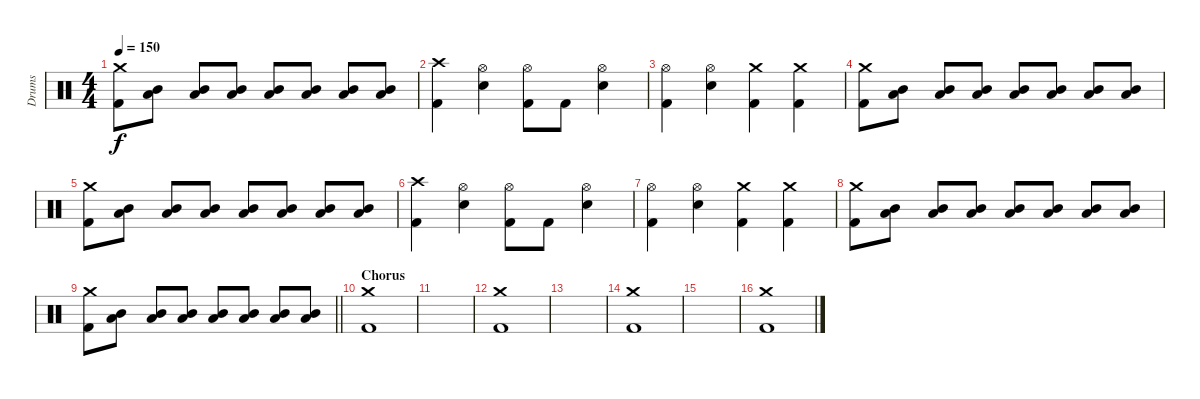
\track ("Drums" "Drums") {instrument percussion}
\staff {score}
\articulation defaults
\ts (4 4)
\tempo 150
\clef neutral
\ks c
("Crash medium (hit)" "Kick (hit) 2").8{dy f} ("Low Tom (hit)" "Mid Tom (hit)").8 ("Low Tom (hit)" "Mid Tom (hit)").8 ("Low Tom (hit)" "Mid Tom (hit)").8 ("Low Tom (hit)" "Mid Tom (hit)").8 ("Low Tom (hit)" "Mid Tom (hit)").8 ("Low Tom (hit)" "Mid Tom (hit)").8 ("Low Tom (hit)" "Mid Tom (hit)").8 |
("Crash high (hit)" "Kick (hit) 2").4 ("Hi-Hat (open)" "Electric Snare (hit)").4 ("Hi-Hat (open)" "Kick (hit) 2").8 "Kick (hit) 2".8 ("Hi-Hat (open)" "Electric Snare (hit)").4 |
("Hi-Hat (open)" "Kick (hit) 2").4 ("Electric Snare (hit)" "Hi-Hat (open)").4 ("Crash medium (hit)" "Kick (hit) 2").4 ("Crash medium (hit)" "Kick (hit) 2").4 |
("Crash medium (hit)" "Kick (hit) 2").8 ("Low Tom (hit)" "Mid Tom (hit)").8 ("Low Tom (hit)" "Mid Tom (hit)").8 ("Low Tom (hit)" "Mid Tom (hit)").8 ("Low Tom (hit)" "Mid Tom (hit)").8 ("Low Tom (hit)" "Mid Tom (hit)").8 ("Low Tom (hit)" "Mid Tom (hit)").8 ("Low Tom (hit)" "Mid Tom (hit)").8 |
("Crash medium (hit)" "Kick (hit) 2").8 ("Low Tom (hit)" "Mid Tom (hit)").8 ("Low Tom (hit)" "Mid Tom (hit)").8 ("Low Tom (hit)" "Mid Tom (hit)").8 ("Low Tom (hit)" "Mid Tom (hit)").8 ("Low Tom (hit)" "Mid Tom (hit)").8 ("Low Tom (hit)" "Mid Tom (hit)").8 ("Low Tom (hit)" "Mid Tom (hit)").8 |
("Crash high (hit)" "Kick (hit) 2").4 ("Hi-Hat (open)" "Electric Snare (hit)").4 ("Hi-Hat (open)" "Kick (hit) 2").8 "Kick (hit) 2".8 ("Hi-Hat (open)" "Electric Snare (hit)").4 |
("Hi-Hat (open)" "Kick (hit) 2").4 ("Electric Snare (hit)" "Hi-Hat (open)").4 ("Crash medium (hit)" "Kick (hit) 2").4 ("Crash medium (hit)" "Kick (hit) 2").4 |
("Crash medium (hit)" "Kick (hit) 2").8 ("Low Tom (hit)" "Mid Tom (hit)").8 ("Low Tom (hit)" "Mid Tom (hit)").8 ("Low Tom (hit)" "Mid Tom (hit)").8 ("Low Tom (hit)" "Mid Tom (hit)").8 ("Low Tom (hit)" "Mid Tom (hit)").8 ("Low Tom (hit)" "Mid Tom (hit)").8 ("Low Tom (hit)" "Mid Tom (hit)").8 |
\barLineRight lightlight
("Crash medium (hit)" "Kick (hit) 2").8 ("Low Tom (hit)" "Mid Tom (hit)").8 ("Low Tom (hit)" "Mid Tom (hit)").8 ("Low Tom (hit)" "Mid Tom (hit)").8 ("Low Tom (hit)" "Mid Tom (hit)").8 ("Low Tom (hit)" "Mid Tom (hit)").8 ("Low Tom (hit)" "Mid Tom (hit)").8 ("Low Tom (hit)" "Mid Tom (hit)").8 |
\section ("" "Chorus")
("Crash medium (hit)" "Kick (hit) 2").1 |
|
("Crash medium (hit)" "Kick (hit) 2").1 |
|
("Crash medium (hit)" "Kick (hit) 2").1 |
|
("Crash medium (hit)" "Kick (hit) 2").1
